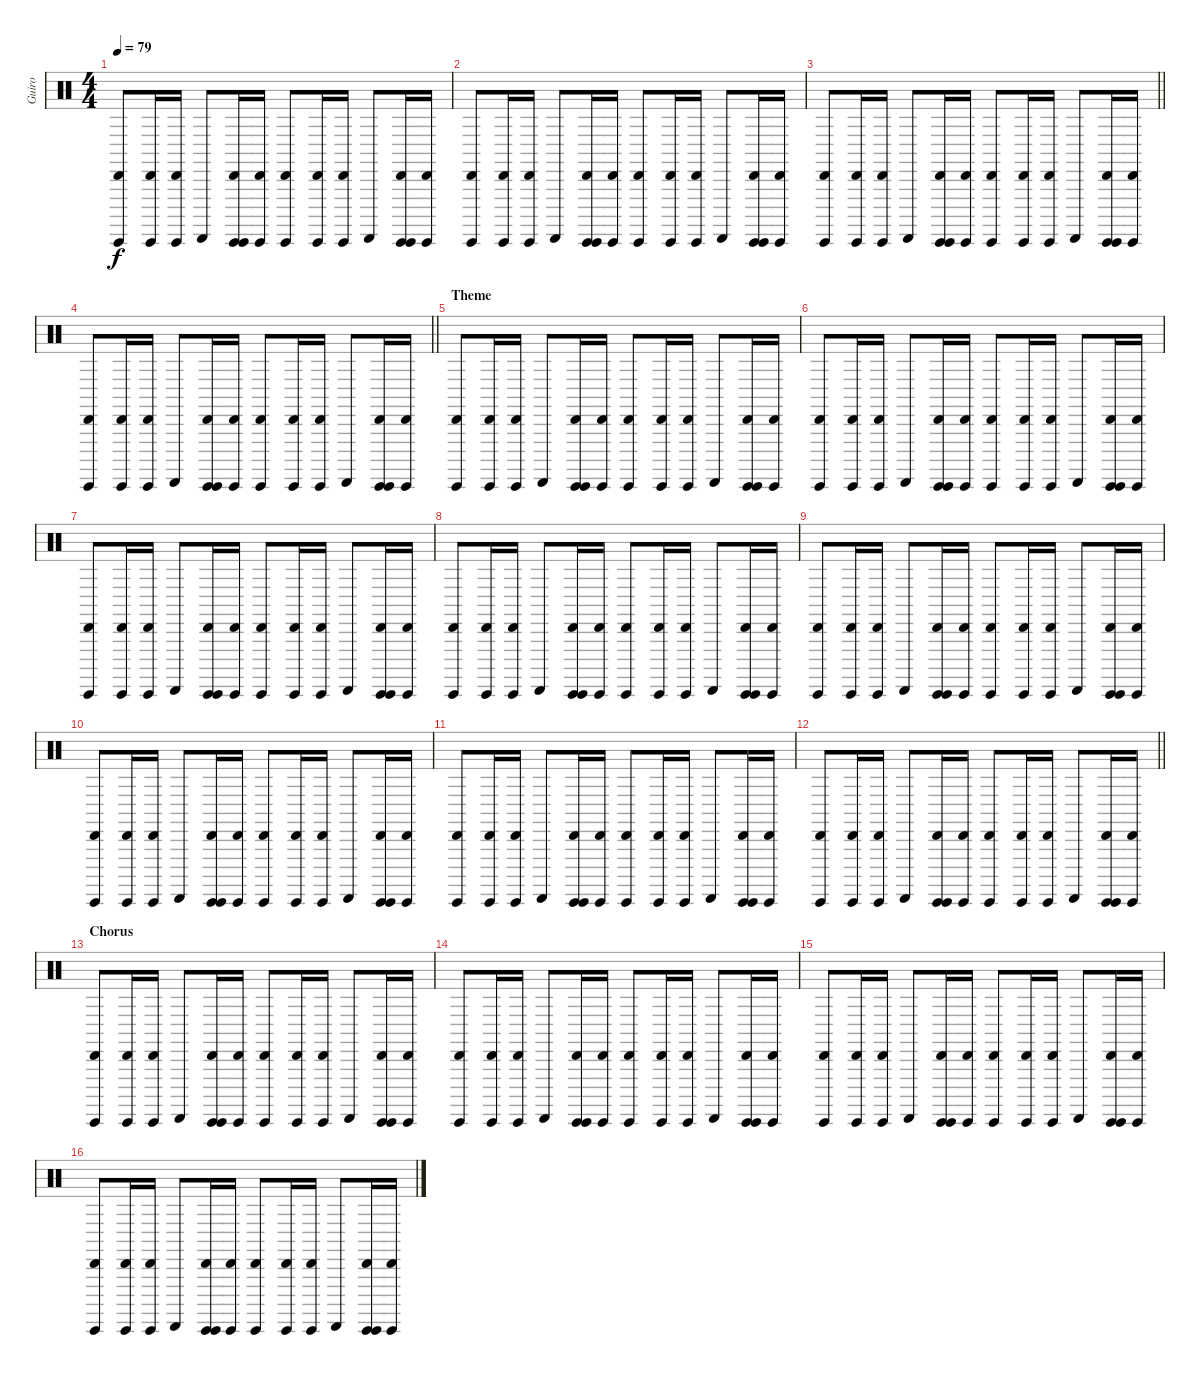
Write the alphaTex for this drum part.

\track ("Guiro" "Guiro") {instrument percussion}
\staff {score}
\articulation defaults
\ts (4 4)
\section ("" "")
\tempo 79
\clef neutral
\ks c
("Guiro (hit)" "Cabasa (hit)").8{dy f} ("Guiro (hit)" "Cabasa (hit)").16 ("Guiro (hit)" "Cabasa (hit)").16 "Guiro (scrap-return)".8 ("Guiro (hit)" "Guiro (hit)" "Cabasa (hit)").16 ("Guiro (hit)" "Cabasa (hit)").16 ("Guiro (hit)" "Cabasa (hit)").8 ("Guiro (hit)" "Cabasa (hit)").16 ("Guiro (hit)" "Cabasa (hit)").16 "Guiro (scrap-return)".8 ("Guiro (hit)" "Guiro (hit)" "Cabasa (hit)").16 ("Guiro (hit)" "Cabasa (hit)").16 |
("Guiro (hit)" "Cabasa (hit)").8 ("Guiro (hit)" "Cabasa (hit)").16 ("Guiro (hit)" "Cabasa (hit)").16 "Guiro (scrap-return)".8 ("Guiro (hit)" "Guiro (hit)" "Cabasa (hit)").16 ("Guiro (hit)" "Cabasa (hit)").16 ("Guiro (hit)" "Cabasa (hit)").8 ("Guiro (hit)" "Cabasa (hit)").16 ("Guiro (hit)" "Cabasa (hit)").16 "Guiro (scrap-return)".8 ("Guiro (hit)" "Guiro (hit)" "Cabasa (hit)").16 ("Guiro (hit)" "Cabasa (hit)").16 |
\barLineRight lightlight
("Guiro (hit)" "Cabasa (hit)").8 ("Guiro (hit)" "Cabasa (hit)").16 ("Guiro (hit)" "Cabasa (hit)").16 "Guiro (scrap-return)".8 ("Guiro (hit)" "Guiro (hit)" "Cabasa (hit)").16 ("Guiro (hit)" "Cabasa (hit)").16 ("Guiro (hit)" "Cabasa (hit)").8 ("Guiro (hit)" "Cabasa (hit)").16 ("Guiro (hit)" "Cabasa (hit)").16 "Guiro (scrap-return)".8 ("Guiro (hit)" "Guiro (hit)" "Cabasa (hit)").16 ("Guiro (hit)" "Cabasa (hit)").16 |
\section ("" "")
\barLineRight lightlight
("Guiro (hit)" "Cabasa (hit)").8 ("Guiro (hit)" "Cabasa (hit)").16 ("Guiro (hit)" "Cabasa (hit)").16 "Guiro (scrap-return)".8 ("Guiro (hit)" "Guiro (hit)" "Cabasa (hit)").16 ("Guiro (hit)" "Cabasa (hit)").16 ("Guiro (hit)" "Cabasa (hit)").8 ("Guiro (hit)" "Cabasa (hit)").16 ("Guiro (hit)" "Cabasa (hit)").16 "Guiro (scrap-return)".8 ("Guiro (hit)" "Guiro (hit)" "Cabasa (hit)").16 ("Guiro (hit)" "Cabasa (hit)").16 |
\section ("" "Theme")
("Guiro (hit)" "Cabasa (hit)").8 ("Guiro (hit)" "Cabasa (hit)").16 ("Guiro (hit)" "Cabasa (hit)").16 "Guiro (scrap-return)".8 ("Guiro (hit)" "Guiro (hit)" "Cabasa (hit)").16 ("Guiro (hit)" "Cabasa (hit)").16 ("Guiro (hit)" "Cabasa (hit)").8 ("Guiro (hit)" "Cabasa (hit)").16 ("Guiro (hit)" "Cabasa (hit)").16 "Guiro (scrap-return)".8 ("Guiro (hit)" "Guiro (hit)" "Cabasa (hit)").16 ("Guiro (hit)" "Cabasa (hit)").16 |
("Guiro (hit)" "Cabasa (hit)").8 ("Guiro (hit)" "Cabasa (hit)").16 ("Guiro (hit)" "Cabasa (hit)").16 "Guiro (scrap-return)".8 ("Guiro (hit)" "Guiro (hit)" "Cabasa (hit)").16 ("Guiro (hit)" "Cabasa (hit)").16 ("Guiro (hit)" "Cabasa (hit)").8 ("Guiro (hit)" "Cabasa (hit)").16 ("Guiro (hit)" "Cabasa (hit)").16 "Guiro (scrap-return)".8 ("Guiro (hit)" "Guiro (hit)" "Cabasa (hit)").16 ("Guiro (hit)" "Cabasa (hit)").16 |
("Guiro (hit)" "Cabasa (hit)").8 ("Guiro (hit)" "Cabasa (hit)").16 ("Guiro (hit)" "Cabasa (hit)").16 "Guiro (scrap-return)".8 ("Guiro (hit)" "Guiro (hit)" "Cabasa (hit)").16 ("Guiro (hit)" "Cabasa (hit)").16 ("Guiro (hit)" "Cabasa (hit)").8 ("Guiro (hit)" "Cabasa (hit)").16 ("Guiro (hit)" "Cabasa (hit)").16 "Guiro (scrap-return)".8 ("Guiro (hit)" "Guiro (hit)" "Cabasa (hit)").16 ("Guiro (hit)" "Cabasa (hit)").16 |
("Guiro (hit)" "Cabasa (hit)").8 ("Guiro (hit)" "Cabasa (hit)").16 ("Guiro (hit)" "Cabasa (hit)").16 "Guiro (scrap-return)".8 ("Guiro (hit)" "Guiro (hit)" "Cabasa (hit)").16 ("Guiro (hit)" "Cabasa (hit)").16 ("Guiro (hit)" "Cabasa (hit)").8 ("Guiro (hit)" "Cabasa (hit)").16 ("Guiro (hit)" "Cabasa (hit)").16 "Guiro (scrap-return)".8 ("Guiro (hit)" "Guiro (hit)" "Cabasa (hit)").16 ("Guiro (hit)" "Cabasa (hit)").16 |
("Guiro (hit)" "Cabasa (hit)").8 ("Guiro (hit)" "Cabasa (hit)").16 ("Guiro (hit)" "Cabasa (hit)").16 "Guiro (scrap-return)".8 ("Guiro (hit)" "Guiro (hit)" "Cabasa (hit)").16 ("Guiro (hit)" "Cabasa (hit)").16 ("Guiro (hit)" "Cabasa (hit)").8 ("Guiro (hit)" "Cabasa (hit)").16 ("Guiro (hit)" "Cabasa (hit)").16 "Guiro (scrap-return)".8 ("Guiro (hit)" "Guiro (hit)" "Cabasa (hit)").16 ("Guiro (hit)" "Cabasa (hit)").16 |
("Guiro (hit)" "Cabasa (hit)").8 ("Guiro (hit)" "Cabasa (hit)").16 ("Guiro (hit)" "Cabasa (hit)").16 "Guiro (scrap-return)".8 ("Guiro (hit)" "Guiro (hit)" "Cabasa (hit)").16 ("Guiro (hit)" "Cabasa (hit)").16 ("Guiro (hit)" "Cabasa (hit)").8 ("Guiro (hit)" "Cabasa (hit)").16 ("Guiro (hit)" "Cabasa (hit)").16 "Guiro (scrap-return)".8 ("Guiro (hit)" "Guiro (hit)" "Cabasa (hit)").16 ("Guiro (hit)" "Cabasa (hit)").16 |
("Guiro (hit)" "Cabasa (hit)").8 ("Guiro (hit)" "Cabasa (hit)").16 ("Guiro (hit)" "Cabasa (hit)").16 "Guiro (scrap-return)".8 ("Guiro (hit)" "Guiro (hit)" "Cabasa (hit)").16 ("Guiro (hit)" "Cabasa (hit)").16 ("Guiro (hit)" "Cabasa (hit)").8 ("Guiro (hit)" "Cabasa (hit)").16 ("Guiro (hit)" "Cabasa (hit)").16 "Guiro (scrap-return)".8 ("Guiro (hit)" "Guiro (hit)" "Cabasa (hit)").16 ("Guiro (hit)" "Cabasa (hit)").16 |
\barLineRight lightlight
("Guiro (hit)" "Cabasa (hit)").8 ("Guiro (hit)" "Cabasa (hit)").16 ("Guiro (hit)" "Cabasa (hit)").16 "Guiro (scrap-return)".8 ("Guiro (hit)" "Guiro (hit)" "Cabasa (hit)").16 ("Guiro (hit)" "Cabasa (hit)").16 ("Guiro (hit)" "Cabasa (hit)").8 ("Guiro (hit)" "Cabasa (hit)").16 ("Guiro (hit)" "Cabasa (hit)").16 "Guiro (scrap-return)".8 ("Guiro (hit)" "Guiro (hit)" "Cabasa (hit)").16 ("Guiro (hit)" "Cabasa (hit)").16 |
\section ("" "Chorus")
("Guiro (hit)" "Cabasa (hit)").8 ("Guiro (hit)" "Cabasa (hit)").16 ("Guiro (hit)" "Cabasa (hit)").16 "Guiro (scrap-return)".8 ("Guiro (hit)" "Guiro (hit)" "Cabasa (hit)").16 ("Guiro (hit)" "Cabasa (hit)").16 ("Guiro (hit)" "Cabasa (hit)").8 ("Guiro (hit)" "Cabasa (hit)").16 ("Guiro (hit)" "Cabasa (hit)").16 "Guiro (scrap-return)".8 ("Guiro (hit)" "Guiro (hit)" "Cabasa (hit)").16 ("Guiro (hit)" "Cabasa (hit)").16 |
("Guiro (hit)" "Cabasa (hit)").8 ("Guiro (hit)" "Cabasa (hit)").16 ("Guiro (hit)" "Cabasa (hit)").16 "Guiro (scrap-return)".8 ("Guiro (hit)" "Guiro (hit)" "Cabasa (hit)").16 ("Guiro (hit)" "Cabasa (hit)").16 ("Guiro (hit)" "Cabasa (hit)").8 ("Guiro (hit)" "Cabasa (hit)").16 ("Guiro (hit)" "Cabasa (hit)").16 "Guiro (scrap-return)".8 ("Guiro (hit)" "Guiro (hit)" "Cabasa (hit)").16 ("Guiro (hit)" "Cabasa (hit)").16 |
("Guiro (hit)" "Cabasa (hit)").8 ("Guiro (hit)" "Cabasa (hit)").16 ("Guiro (hit)" "Cabasa (hit)").16 "Guiro (scrap-return)".8 ("Guiro (hit)" "Guiro (hit)" "Cabasa (hit)").16 ("Guiro (hit)" "Cabasa (hit)").16 ("Guiro (hit)" "Cabasa (hit)").8 ("Guiro (hit)" "Cabasa (hit)").16 ("Guiro (hit)" "Cabasa (hit)").16 "Guiro (scrap-return)".8 ("Guiro (hit)" "Guiro (hit)" "Cabasa (hit)").16 ("Guiro (hit)" "Cabasa (hit)").16 |
("Guiro (hit)" "Cabasa (hit)").8 ("Guiro (hit)" "Cabasa (hit)").16 ("Guiro (hit)" "Cabasa (hit)").16 "Guiro (scrap-return)".8 ("Guiro (hit)" "Guiro (hit)" "Cabasa (hit)").16 ("Guiro (hit)" "Cabasa (hit)").16 ("Guiro (hit)" "Cabasa (hit)").8 ("Guiro (hit)" "Cabasa (hit)").16 ("Guiro (hit)" "Cabasa (hit)").16 "Guiro (scrap-return)".8 ("Guiro (hit)" "Guiro (hit)" "Cabasa (hit)").16 ("Guiro (hit)" "Cabasa (hit)").16
